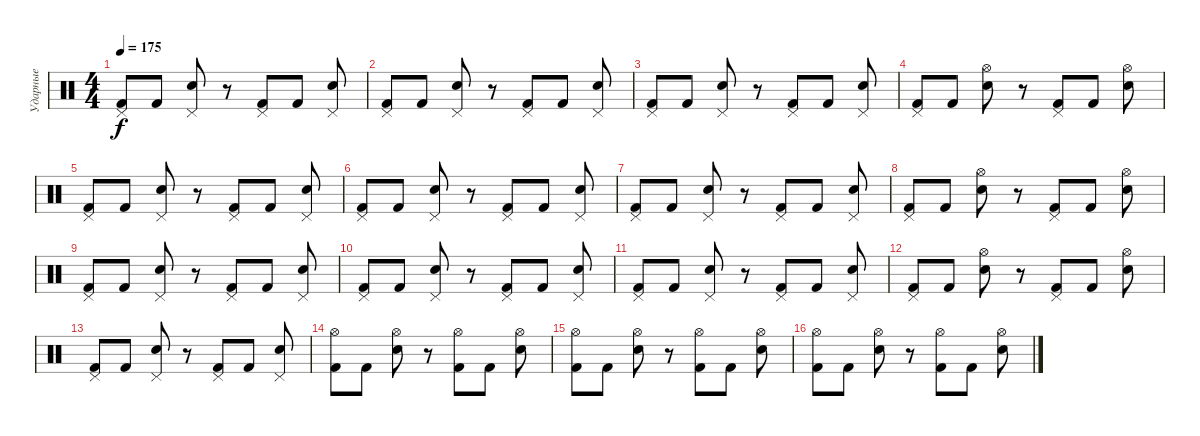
\track ("Ударные" "Ударные") {instrument percussion}
\staff {score}
\articulation defaults
\ts (4 4)
\tempo 175
\clef neutral
\ks c
("Kick (hit) 2" "Pedal Hi-Hat (hit)").8{dy f} "Kick (hit) 2".8 ("Electric Snare (hit)" "Pedal Hi-Hat (hit)").8 r.8 ("Kick (hit) 2" "Pedal Hi-Hat (hit)").8 "Kick (hit) 2".8 ("Electric Snare (hit)" "Pedal Hi-Hat (hit)").8 |
("Kick (hit) 2" "Pedal Hi-Hat (hit)").8 "Kick (hit) 2".8 ("Electric Snare (hit)" "Pedal Hi-Hat (hit)").8 r.8 ("Kick (hit) 2" "Pedal Hi-Hat (hit)").8 "Kick (hit) 2".8 ("Electric Snare (hit)" "Pedal Hi-Hat (hit)").8 |
("Kick (hit) 2" "Pedal Hi-Hat (hit)").8 "Kick (hit) 2".8 ("Electric Snare (hit)" "Pedal Hi-Hat (hit)").8 r.8 ("Kick (hit) 2" "Pedal Hi-Hat (hit)").8 "Kick (hit) 2".8 ("Electric Snare (hit)" "Pedal Hi-Hat (hit)").8 |
("Kick (hit) 2" "Pedal Hi-Hat (hit)").8 "Kick (hit) 2".8 ("Electric Snare (hit)" "Hi-Hat (open)").8 r.8 ("Kick (hit) 2" "Pedal Hi-Hat (hit)").8 "Kick (hit) 2".8 ("Electric Snare (hit)" "Hi-Hat (open)").8 |
("Kick (hit) 2" "Pedal Hi-Hat (hit)").8 "Kick (hit) 2".8 ("Electric Snare (hit)" "Pedal Hi-Hat (hit)").8 r.8 ("Kick (hit) 2" "Pedal Hi-Hat (hit)").8 "Kick (hit) 2".8 ("Electric Snare (hit)" "Pedal Hi-Hat (hit)").8 |
("Kick (hit) 2" "Pedal Hi-Hat (hit)").8 "Kick (hit) 2".8 ("Electric Snare (hit)" "Pedal Hi-Hat (hit)").8 r.8 ("Kick (hit) 2" "Pedal Hi-Hat (hit)").8 "Kick (hit) 2".8 ("Electric Snare (hit)" "Pedal Hi-Hat (hit)").8 |
("Kick (hit) 2" "Pedal Hi-Hat (hit)").8 "Kick (hit) 2".8 ("Electric Snare (hit)" "Pedal Hi-Hat (hit)").8 r.8 ("Kick (hit) 2" "Pedal Hi-Hat (hit)").8 "Kick (hit) 2".8 ("Electric Snare (hit)" "Pedal Hi-Hat (hit)").8 |
("Kick (hit) 2" "Pedal Hi-Hat (hit)").8 "Kick (hit) 2".8 ("Electric Snare (hit)" "Hi-Hat (open)").8 r.8 ("Kick (hit) 2" "Pedal Hi-Hat (hit)").8 "Kick (hit) 2".8 ("Electric Snare (hit)" "Hi-Hat (open)").8 |
("Kick (hit) 2" "Pedal Hi-Hat (hit)").8 "Kick (hit) 2".8 ("Electric Snare (hit)" "Pedal Hi-Hat (hit)").8 r.8 ("Kick (hit) 2" "Pedal Hi-Hat (hit)").8 "Kick (hit) 2".8 ("Electric Snare (hit)" "Pedal Hi-Hat (hit)").8 |
("Kick (hit) 2" "Pedal Hi-Hat (hit)").8 "Kick (hit) 2".8 ("Electric Snare (hit)" "Pedal Hi-Hat (hit)").8 r.8 ("Kick (hit) 2" "Pedal Hi-Hat (hit)").8 "Kick (hit) 2".8 ("Electric Snare (hit)" "Pedal Hi-Hat (hit)").8 |
("Kick (hit) 2" "Pedal Hi-Hat (hit)").8 "Kick (hit) 2".8 ("Electric Snare (hit)" "Pedal Hi-Hat (hit)").8 r.8 ("Kick (hit) 2" "Pedal Hi-Hat (hit)").8 "Kick (hit) 2".8 ("Electric Snare (hit)" "Pedal Hi-Hat (hit)").8 |
("Kick (hit) 2" "Pedal Hi-Hat (hit)").8 "Kick (hit) 2".8 ("Electric Snare (hit)" "Hi-Hat (open)").8 r.8 ("Kick (hit) 2" "Pedal Hi-Hat (hit)").8 "Kick (hit) 2".8 ("Electric Snare (hit)" "Hi-Hat (open)").8 |
("Kick (hit) 2" "Pedal Hi-Hat (hit)").8 "Kick (hit) 2".8 ("Electric Snare (hit)" "Pedal Hi-Hat (hit)").8 r.8 ("Kick (hit) 2" "Pedal Hi-Hat (hit)").8 "Kick (hit) 2".8 ("Electric Snare (hit)" "Pedal Hi-Hat (hit)").8 |
("Kick (hit) 2" "Hi-Hat (open)").8 "Kick (hit) 2".8 ("Electric Snare (hit)" "Hi-Hat (open)").8 r.8 ("Kick (hit) 2" "Hi-Hat (open)").8 "Kick (hit) 2".8 ("Electric Snare (hit)" "Hi-Hat (open)").8 |
("Kick (hit) 2" "Hi-Hat (open)").8 "Kick (hit) 2".8 ("Electric Snare (hit)" "Hi-Hat (open)").8 r.8 ("Kick (hit) 2" "Hi-Hat (open)").8 "Kick (hit) 2".8 ("Electric Snare (hit)" "Hi-Hat (open)").8 |
("Kick (hit) 2" "Hi-Hat (open)").8 "Kick (hit) 2".8 ("Electric Snare (hit)" "Hi-Hat (open)").8 r.8 ("Kick (hit) 2" "Hi-Hat (open)").8 "Kick (hit) 2".8 ("Electric Snare (hit)" "Hi-Hat (open)").8
